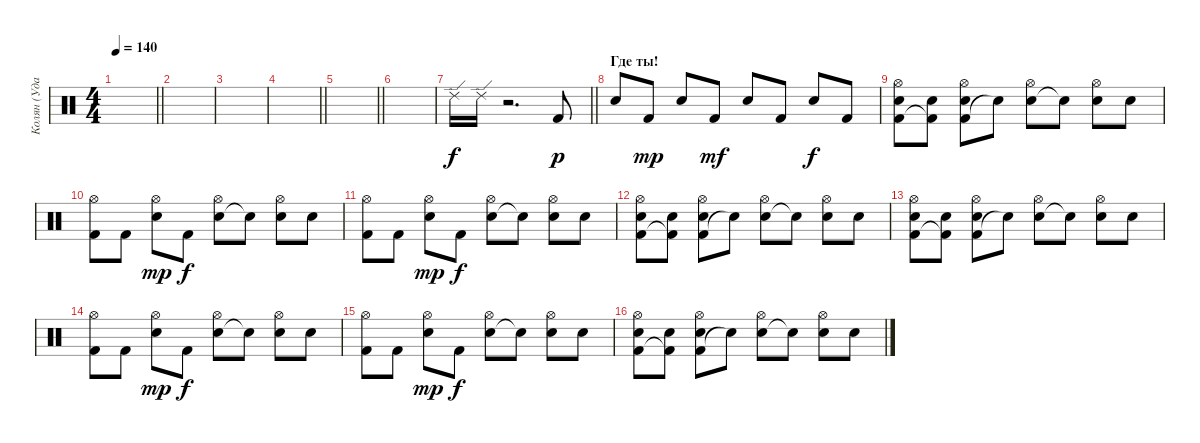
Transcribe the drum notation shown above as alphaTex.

\track ("Колян (Ударные)" "Колян (Уда") {instrument percussion}
\staff
\articulation defaults
\ts (4 4)
\tempo 140
\clef neutral
\barLineRight lightlight
\ks c
|
|
|
\barLineRight lightlight
|
\barLineRight lightlight
|
|
\barLineRight lightlight "Ride (edge) 2".16 "Ride (edge) 2".16
r.2{d} "Kick (hit) 2".8{dy p} |
\section ("" "Где ты!")
"Snare (hit) 2".8 "Kick (hit) 2".8{dy mp} "Snare (hit) 2".8 "Kick (hit) 2".8{dy mf} "Snare (hit) 2".8 "Kick (hit) 2".8 "Snare (hit) 2".8{dy f} "Kick (hit) 2".8 |
("Kick (hit) 2" "Snare (hit) 2" "Hi-Hat (open)").8 ("Kick (hit) 2"{t} "Snare (hit) 2").8 ("Kick (hit) 2" "Snare (hit) 2" "Hi-Hat (open)").8 "Snare (hit)"{t}.8 ("Snare (hit) 2" "Hi-Hat (open)").8 "Snare (hit)"{t}.8 ("Snare (hit) 2" "Hi-Hat (open)").8 "Snare (hit) 2".8 |
("Kick (hit) 2" "Hi-Hat (open)").8 "Kick (hit) 2".8 ("Snare (hit) 2" "Hi-Hat (open)").8{dy mp} "Kick (hit) 2".8{dy f} ("Snare (hit) 2" "Hi-Hat (open)").8 "Snare (hit)"{t}.8 ("Snare (hit) 2" "Hi-Hat (open)").8 "Snare (hit) 2".8 |
("Kick (hit) 2" "Hi-Hat (open)").8 "Kick (hit) 2".8 ("Snare (hit) 2" "Hi-Hat (open)").8{dy mp} "Kick (hit) 2".8{dy f} ("Snare (hit) 2" "Hi-Hat (open)").8 "Snare (hit)"{t}.8 ("Snare (hit) 2" "Hi-Hat (open)").8 "Snare (hit) 2".8 |
("Kick (hit) 2" "Snare (hit) 2" "Hi-Hat (open)").8 ("Kick (hit) 2"{t} "Snare (hit) 2").8 ("Kick (hit) 2" "Snare (hit) 2" "Hi-Hat (open)").8 "Snare (hit)"{t}.8 ("Snare (hit) 2" "Hi-Hat (open)").8 "Snare (hit)"{t}.8 ("Snare (hit) 2" "Hi-Hat (open)").8 "Snare (hit) 2".8 |
("Kick (hit) 2" "Snare (hit) 2" "Hi-Hat (open)").8 ("Kick (hit) 2"{t} "Snare (hit) 2").8 ("Kick (hit) 2" "Snare (hit) 2" "Hi-Hat (open)").8 "Snare (hit)"{t}.8 ("Snare (hit) 2" "Hi-Hat (open)").8 "Snare (hit)"{t}.8 ("Snare (hit) 2" "Hi-Hat (open)").8 "Snare (hit) 2".8 |
("Kick (hit) 2" "Hi-Hat (open)").8 "Kick (hit) 2".8 ("Snare (hit) 2" "Hi-Hat (open)").8{dy mp} "Kick (hit) 2".8{dy f} ("Snare (hit) 2" "Hi-Hat (open)").8 "Snare (hit)"{t}.8 ("Snare (hit) 2" "Hi-Hat (open)").8 "Snare (hit) 2".8 |
("Kick (hit) 2" "Hi-Hat (open)").8 "Kick (hit) 2".8 ("Snare (hit) 2" "Hi-Hat (open)").8{dy mp} "Kick (hit) 2".8{dy f} ("Snare (hit) 2" "Hi-Hat (open)").8 "Snare (hit)"{t}.8 ("Snare (hit) 2" "Hi-Hat (open)").8 "Snare (hit) 2".8 |
("Kick (hit) 2" "Snare (hit) 2" "Hi-Hat (open)").8 ("Kick (hit) 2"{t} "Snare (hit) 2").8 ("Kick (hit) 2" "Snare (hit) 2" "Hi-Hat (open)").8 "Snare (hit)"{t}.8 ("Snare (hit) 2" "Hi-Hat (open)").8 "Snare (hit)"{t}.8 ("Snare (hit) 2" "Hi-Hat (open)").8 "Snare (hit) 2".8
